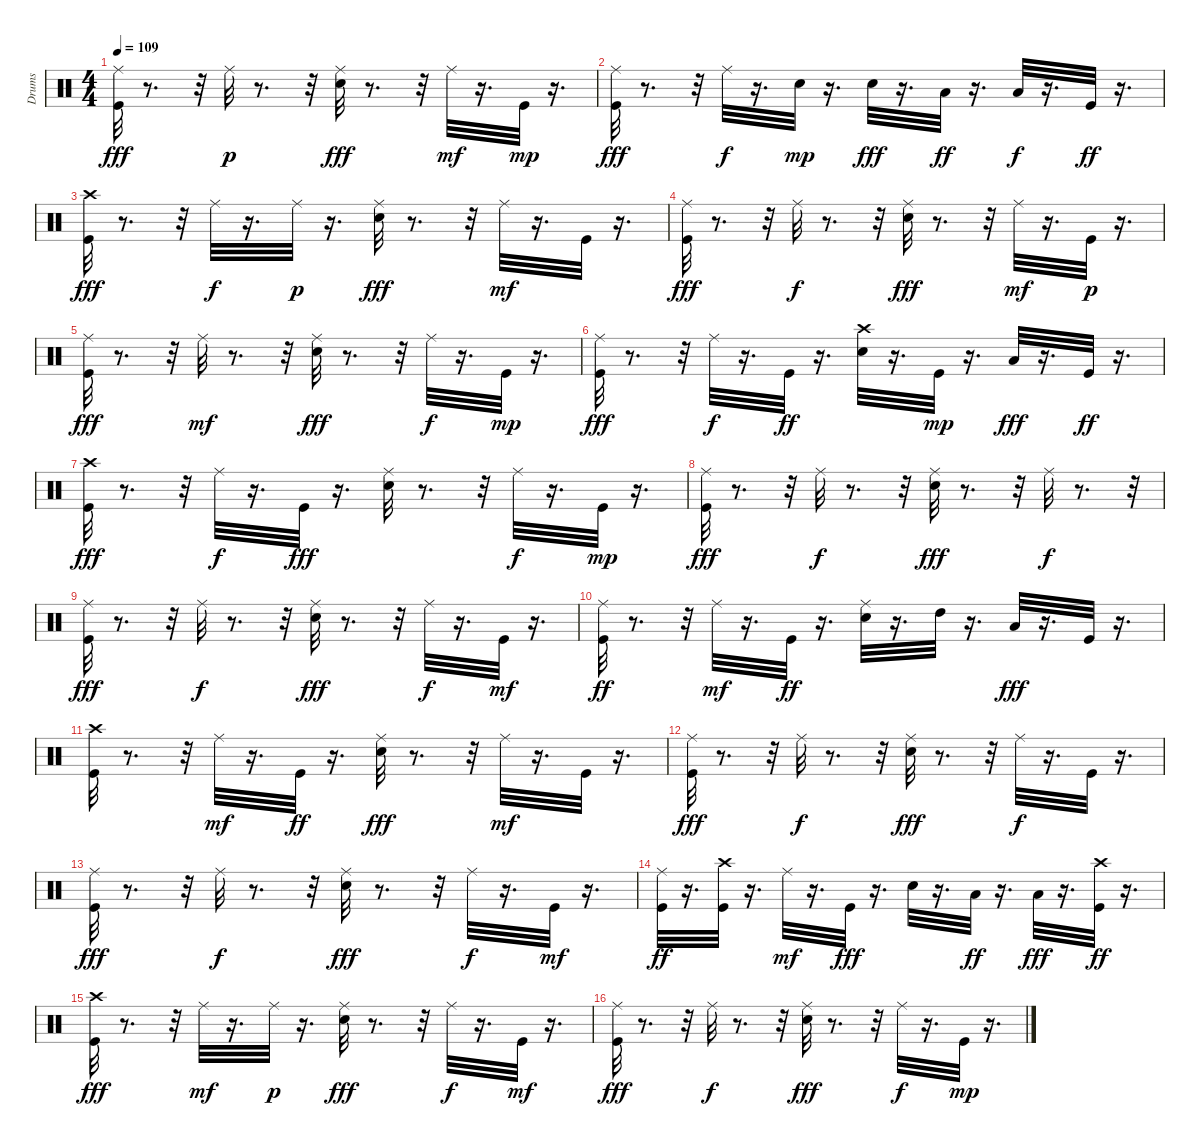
\track ("Drums" "Drums") {instrument percussion}
\staff {score}
\articulation defaults
\ts (4 4)
\tempo 109
\clef neutral
\ks c
("Ride (middle)" "Kick (hit)").32{dy fff} r.8{d} r.32 "Ride (middle)".32{dy p} r.8{d} r.32 ("Ride (middle)" "Snare (hit) 2").32{dy fff} r.8{d} r.32 "Ride (middle)".32{dy mf} r.16{d} "Kick (hit)".32{dy mp} r.16{d} |
("Ride (middle)" "Kick (hit)").32{dy fff} r.8{d} r.32 "Ride (middle)".32{dy f} r.16{d} "Snare (hit) 2".32{dy mp} r.16{d} "Snare (hit) 2".32{dy fff} r.16{d} "Low Tom (hit)".32{dy ff} r.16{d} "Low Floor Tom (hit)".32{dy f} r.16{d} "Kick (hit)".32{dy ff} r.16{d} |
("Crash high (hit)" "Kick (hit)").32{dy fff} r.8{d} r.32 "Ride (middle)".32{dy f} r.16{d} "Ride (middle)".32{dy p} r.16{d} ("Ride (middle)" "Snare (hit) 2").32{dy fff} r.8{d} r.32 "Ride (middle)".32{dy mf} r.16{d} "Kick (hit)".32 r.16{d} |
("Ride (middle)" "Kick (hit)").32{dy fff} r.8{d} r.32 "Ride (middle)".32{dy f} r.8{d} r.32 ("Ride (middle)" "Snare (hit) 2").32{dy fff} r.8{d} r.32 "Ride (middle)".32{dy mf} r.16{d} "Kick (hit)".32{dy p} r.16{d} |
("Ride (middle)" "Kick (hit)").32{dy fff} r.8{d} r.32 "Ride (middle)".32{dy mf} r.8{d} r.32 ("Ride (middle)" "Snare (hit) 2").32{dy fff} r.8{d} r.32 "Ride (middle)".32{dy f} r.16{d} "Kick (hit)".32{dy mp} r.16{d} |
("Ride (middle)" "Kick (hit)").32{dy fff} r.8{d} r.32 "Ride (middle)".32{dy f} r.16{d} "Kick (hit)".32{dy ff} r.16{d} ("Crash high (hit)" "Snare (hit) 2").32 r.16{d} "Kick (hit)".32{dy mp} r.16{d} "Low Floor Tom (hit)".32{dy fff} r.16{d} "Kick (hit)".32{dy ff} r.16{d} |
("Crash high (hit)" "Kick (hit)").32{dy fff} r.8{d} r.32 "Ride (middle)".32{dy f} r.16{d} "Kick (hit)".32{dy fff} r.16{d} ("Ride (middle)" "Snare (hit) 2").32 r.8{d} r.32 "Ride (middle)".32{dy f} r.16{d} "Kick (hit)".32{dy mp} r.16{d} |
("Ride (middle)" "Kick (hit)").32{dy fff} r.8{d} r.32 "Ride (middle)".32{dy f} r.8{d} r.32 ("Ride (middle)" "Snare (hit) 2").32{dy fff} r.8{d} r.32 "Ride (middle)".32{dy f} r.8{d} r.32 |
("Ride (middle)" "Kick (hit)").32{dy fff} r.8{d} r.32 "Ride (middle)".32{dy f} r.8{d} r.32 ("Ride (middle)" "Snare (hit) 2").32{dy fff} r.8{d} r.32 "Ride (middle)".32{dy f} r.16{d} "Kick (hit)".32{dy mf} r.16{d} |
("Ride (middle)" "Kick (hit)").32{dy ff} r.8{d} r.32 "Ride (middle)".32{dy mf} r.16{d} "Kick (hit)".32{dy ff} r.16{d} ("Ride (middle)" "Snare (hit) 2").32 r.16{d} "High Tom (hit)".32 r.16{d} "Low Floor Tom (hit)".32{dy fff} r.16{d} "Kick (hit)".32 r.16{d} |
("Crash high (hit)" "Kick (hit)").32 r.8{d} r.32 "Ride (middle)".32{dy mf} r.16{d} "Kick (hit)".32{dy ff} r.16{d} ("Ride (middle)" "Snare (hit) 2").32{dy fff} r.8{d} r.32 "Ride (middle)".32{dy mf} r.16{d} "Kick (hit)".32 r.16{d} |
("Ride (middle)" "Kick (hit)").32{dy fff} r.8{d} r.32 "Ride (middle)".32{dy f} r.8{d} r.32 ("Ride (middle)" "Snare (hit) 2").32{dy fff} r.8{d} r.32 "Ride (middle)".32{dy f} r.16{d} "Kick (hit)".32 r.16{d} |
("Ride (middle)" "Kick (hit)").32{dy fff} r.8{d} r.32 "Ride (middle)".32{dy f} r.8{d} r.32 ("Ride (middle)" "Snare (hit) 2").32{dy fff} r.8{d} r.32 "Ride (middle)".32{dy f} r.16{d} "Kick (hit)".32{dy mf} r.16{d} |
("Ride (middle)" "Kick (hit)").32{dy ff} r.16{d} ("Crash high (hit)" "Kick (hit)").32 r.16{d} "Ride (middle)".32{dy mf} r.16{d} "Kick (hit)".32{dy fff} r.16{d} "Snare (hit) 2".32 r.16{d} "Low Tom (hit)".32{dy ff} r.16{d} "Low Floor Tom (hit)".32{dy fff} r.16{d} ("Crash high (hit)" "Kick (hit)").32{dy ff} r.16{d} |
("Crash high (hit)" "Kick (hit)").32{dy fff} r.8{d} r.32 "Ride (middle)".32{dy mf} r.16{d} "Ride (middle)".32{dy p} r.16{d} ("Ride (middle)" "Snare (hit) 2").32{dy fff} r.8{d} r.32 "Ride (middle)".32{dy f} r.16{d} "Kick (hit)".32{dy mf} r.16{d} |
("Ride (middle)" "Kick (hit)").32{dy fff} r.8{d} r.32 "Ride (middle)".32{dy f} r.8{d} r.32 ("Ride (middle)" "Snare (hit) 2").32{dy fff} r.8{d} r.32 "Ride (middle)".32{dy f} r.16{d} "Kick (hit)".32{dy mp} r.16{d}
